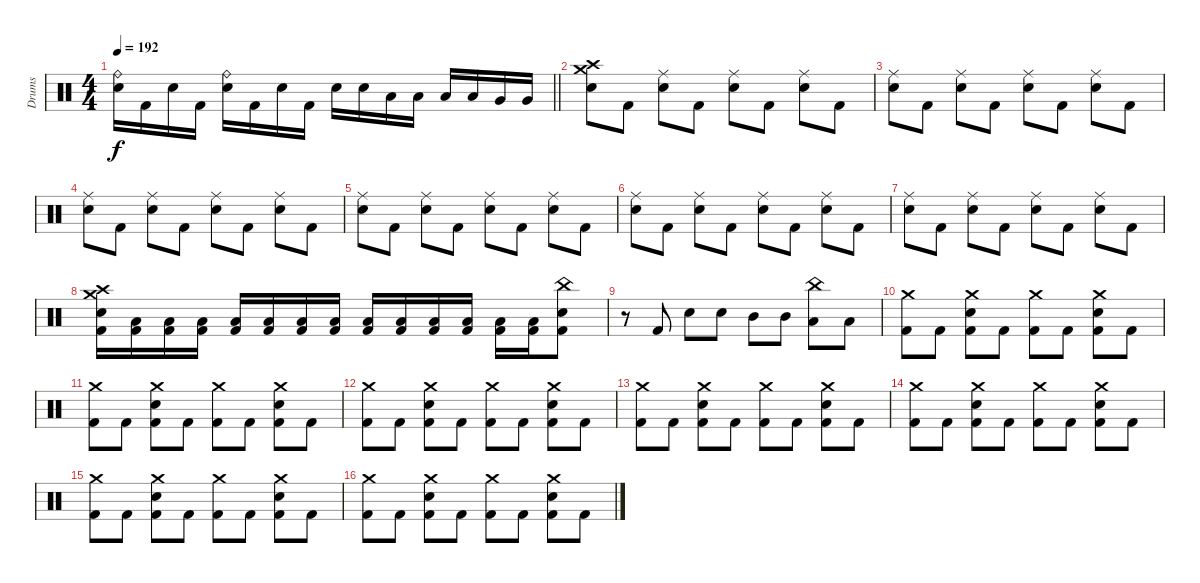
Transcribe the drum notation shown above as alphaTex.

\track ("Drums" "Drums") {instrument percussion}
\staff {score}
\articulation defaults
\ts (4 4)
\tempo 192
\clef neutral
\barLineRight lightlight
\ks c
("Ride (bell)" "Snare (hit) 2").16{dy f} "Kick (hit) 2".16 "Snare (hit) 2".16 "Kick (hit) 2".16 ("Ride (bell)" "Snare (hit) 2").16 "Kick (hit) 2".16 "Snare (hit) 2".16 "Kick (hit) 2".16 "Snare (hit) 2".16 "Snare (hit) 2".16 "Low Tom (hit)".16 "Low Tom (hit)".16 "Low Tom (hit)".16 "Low Tom (hit)".16 "Very Low Tom (hit)".16 "Very Low Tom (hit)".16 |
\section ("" "")
("Crash medium (hit)" "Crash high (hit)" "Snare (hit) 2").8 "Kick (hit) 2".8 ("Ride (middle)" "Snare (hit) 2").8 "Kick (hit) 2".8 ("Ride (middle)" "Snare (hit) 2").8 "Kick (hit) 2".8 ("Ride (middle)" "Snare (hit) 2").8 "Kick (hit) 2".8 |
("Ride (middle)" "Snare (hit) 2").8 "Kick (hit) 2".8 ("Ride (middle)" "Snare (hit) 2").8 "Kick (hit) 2".8 ("Ride (middle)" "Snare (hit) 2").8 "Kick (hit) 2".8 ("Ride (middle)" "Snare (hit) 2").8 "Kick (hit) 2".8 |
("Ride (middle)" "Snare (hit) 2").8 "Kick (hit) 2".8 ("Ride (middle)" "Snare (hit) 2").8 "Kick (hit) 2".8 ("Ride (middle)" "Snare (hit) 2").8 "Kick (hit) 2".8 ("Ride (middle)" "Snare (hit) 2").8 "Kick (hit) 2".8 |
("Ride (middle)" "Snare (hit) 2").8 "Kick (hit) 2".8 ("Ride (middle)" "Snare (hit) 2").8 "Kick (hit) 2".8 ("Ride (middle)" "Snare (hit) 2").8 "Kick (hit) 2".8 ("Ride (middle)" "Snare (hit) 2").8 "Kick (hit) 2".8 |
("Ride (middle)" "Snare (hit) 2").8 "Kick (hit) 2".8 ("Ride (middle)" "Snare (hit) 2").8 "Kick (hit) 2".8 ("Ride (middle)" "Snare (hit) 2").8 "Kick (hit) 2".8 ("Ride (middle)" "Snare (hit) 2").8 "Kick (hit) 2".8 |
("Ride (middle)" "Snare (hit) 2").8 "Kick (hit) 2".8 ("Ride (middle)" "Snare (hit) 2").8 "Kick (hit) 2".8 ("Ride (middle)" "Snare (hit) 2").8 "Kick (hit) 2".8 ("Ride (middle)" "Snare (hit) 2").8 "Kick (hit) 2".8 |
("Crash medium (hit)" "Crash high (hit)" "Snare (hit) 2" "Kick (hit) 2").16 ("Low Tom (hit)" "Kick (hit) 2").16 ("Low Tom (hit)" "Kick (hit) 2").16 ("Low Tom (hit)" "Kick (hit) 2").16 ("Low Tom (hit)" "Kick (hit) 2").16 ("Low Tom (hit)" "Kick (hit) 2").16 ("Low Tom (hit)" "Kick (hit) 2").16 ("Low Tom (hit)" "Kick (hit) 2").16 ("Low Tom (hit)" "Kick (hit) 2").16 ("Low Tom (hit)" "Kick (hit) 2").16 ("Low Tom (hit)" "Kick (hit) 2").16 ("Low Tom (hit)" "Kick (hit) 2").16 ("Low Tom (hit)" "Kick (hit) 2").16 ("Low Tom (hit)" "Kick (hit) 2").16 ("China (hit)" "Snare (hit) 2" "Kick (hit) 2").8 |
r.8 "Kick (hit) 2".8 "Snare (hit) 2".8 "Snare (hit) 2".8 "Mid Tom (hit)".8 "Mid Tom (hit)".8 ("China (hit)" "Low Tom (hit)").8 "Low Tom (hit)".8 |
("Crash medium (hit)" "Kick (hit) 2").8 "Kick (hit) 2".8 ("Crash medium (hit)" "Snare (hit) 2" "Kick (hit) 2").8 "Kick (hit) 2".8 ("Crash medium (hit)" "Kick (hit) 2").8 "Kick (hit) 2".8 ("Crash medium (hit)" "Snare (hit) 2" "Kick (hit) 2").8 "Kick (hit) 2".8 |
("Crash medium (hit)" "Kick (hit) 2").8 "Kick (hit) 2".8 ("Crash medium (hit)" "Snare (hit) 2" "Kick (hit) 2").8 "Kick (hit) 2".8 ("Crash medium (hit)" "Kick (hit) 2").8 "Kick (hit) 2".8 ("Crash medium (hit)" "Snare (hit) 2" "Kick (hit) 2").8 "Kick (hit) 2".8 |
("Crash medium (hit)" "Kick (hit) 2").8 "Kick (hit) 2".8 ("Crash medium (hit)" "Snare (hit) 2" "Kick (hit) 2").8 "Kick (hit) 2".8 ("Crash medium (hit)" "Kick (hit) 2").8 "Kick (hit) 2".8 ("Crash medium (hit)" "Snare (hit) 2" "Kick (hit) 2").8 "Kick (hit) 2".8 |
("Crash medium (hit)" "Kick (hit) 2").8 "Kick (hit) 2".8 ("Crash medium (hit)" "Snare (hit) 2" "Kick (hit) 2").8 "Kick (hit) 2".8 ("Crash medium (hit)" "Kick (hit) 2").8 "Kick (hit) 2".8 ("Crash medium (hit)" "Snare (hit) 2" "Kick (hit) 2").8 "Kick (hit) 2".8 |
("Crash medium (hit)" "Kick (hit) 2").8 "Kick (hit) 2".8 ("Crash medium (hit)" "Snare (hit) 2" "Kick (hit) 2").8 "Kick (hit) 2".8 ("Crash medium (hit)" "Kick (hit) 2").8 "Kick (hit) 2".8 ("Crash medium (hit)" "Snare (hit) 2" "Kick (hit) 2").8 "Kick (hit) 2".8 |
("Crash medium (hit)" "Kick (hit) 2").8 "Kick (hit) 2".8 ("Crash medium (hit)" "Snare (hit) 2" "Kick (hit) 2").8 "Kick (hit) 2".8 ("Crash medium (hit)" "Kick (hit) 2").8 "Kick (hit) 2".8 ("Crash medium (hit)" "Snare (hit) 2" "Kick (hit) 2").8 "Kick (hit) 2".8 |
("Crash medium (hit)" "Kick (hit) 2").8 "Kick (hit) 2".8 ("Crash medium (hit)" "Snare (hit) 2" "Kick (hit) 2").8 "Kick (hit) 2".8 ("Crash medium (hit)" "Kick (hit) 2").8 "Kick (hit) 2".8 ("Crash medium (hit)" "Snare (hit) 2" "Kick (hit) 2").8 "Kick (hit) 2".8
